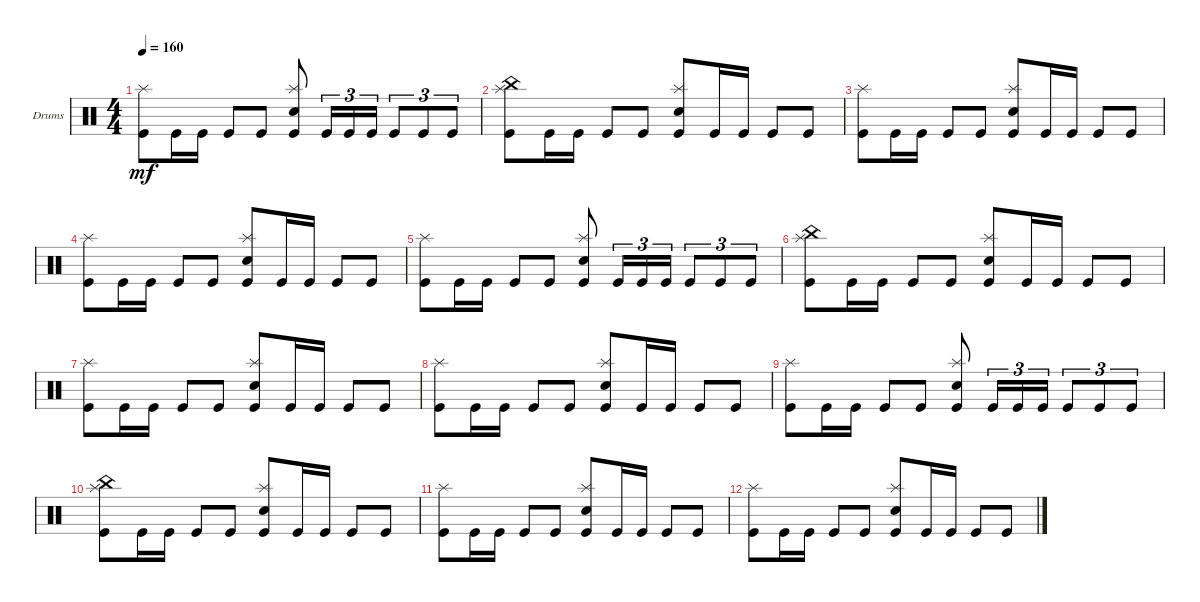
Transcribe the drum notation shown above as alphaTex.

\defaultSystemsLayout 4
\bracketExtendMode groupsimilarinstruments
\firstSystemTrackNameOrientation horizontal
\otherSystemsTrackNameOrientation horizontal
\track ("Drumkit" "Drums") {instrument percussion}
\staff {score}
\articulation defaults
\ts (4 4)
\tempo 160
\clef neutral
\ks c
("Kick (hit)" "Splash (hit)").8{dy mf} "Kick (hit)".16 "Kick (hit)".16 "Kick (hit)".8 "Kick (hit)".8 ("Kick (hit)" "Snare (hit) 2" "Splash (hit)").8 "Kick (hit)".16{tu (3 2)} "Kick (hit)".16{tu (3 2)} "Kick (hit)".16{tu (3 2)} "Kick (hit)".8{tu (3 2)} "Kick (hit)".8{tu (3 2)} "Kick (hit)".8{tu (3 2)} |
("Kick (hit)" "China (hit)" "Splash (hit)").8 "Kick (hit)".16 "Kick (hit)".16 "Kick (hit)".8 "Kick (hit)".8 ("Kick (hit)" "Snare (hit) 2" "Splash (hit)").8 "Kick (hit)".16 "Kick (hit)".16 "Kick (hit)".8 "Kick (hit)".8 |
("Kick (hit)" "Splash (hit)").8 "Kick (hit)".16 "Kick (hit)".16 "Kick (hit)".8 "Kick (hit)".8 ("Kick (hit)" "Snare (hit) 2" "Splash (hit)").8 "Kick (hit)".16 "Kick (hit)".16 "Kick (hit)".8 "Kick (hit)".8 |
("Kick (hit)" "Splash (hit)").8 "Kick (hit)".16 "Kick (hit)".16 "Kick (hit)".8 "Kick (hit)".8 ("Kick (hit)" "Snare (hit) 2" "Splash (hit)").8 "Kick (hit)".16 "Kick (hit)".16 "Kick (hit)".8 "Kick (hit)".8 |
("Kick (hit)" "Splash (hit)").8 "Kick (hit)".16 "Kick (hit)".16 "Kick (hit)".8 "Kick (hit)".8 ("Kick (hit)" "Snare (hit) 2" "Splash (hit)").8 "Kick (hit)".16{tu (3 2)} "Kick (hit)".16{tu (3 2)} "Kick (hit)".16{tu (3 2)} "Kick (hit)".8{tu (3 2)} "Kick (hit)".8{tu (3 2)} "Kick (hit)".8{tu (3 2)} |
("Kick (hit)" "China (hit)" "Splash (hit)").8 "Kick (hit)".16 "Kick (hit)".16 "Kick (hit)".8 "Kick (hit)".8 ("Kick (hit)" "Snare (hit) 2" "Splash (hit)").8 "Kick (hit)".16 "Kick (hit)".16 "Kick (hit)".8 "Kick (hit)".8 |
("Kick (hit)" "Splash (hit)").8 "Kick (hit)".16 "Kick (hit)".16 "Kick (hit)".8 "Kick (hit)".8 ("Kick (hit)" "Snare (hit) 2" "Splash (hit)").8 "Kick (hit)".16 "Kick (hit)".16 "Kick (hit)".8 "Kick (hit)".8 |
("Kick (hit)" "Splash (hit)").8 "Kick (hit)".16 "Kick (hit)".16 "Kick (hit)".8 "Kick (hit)".8 ("Kick (hit)" "Snare (hit) 2" "Splash (hit)").8 "Kick (hit)".16 "Kick (hit)".16 "Kick (hit)".8 "Kick (hit)".8 |
("Kick (hit)" "Splash (hit)").8 "Kick (hit)".16 "Kick (hit)".16 "Kick (hit)".8 "Kick (hit)".8 ("Kick (hit)" "Snare (hit) 2" "Splash (hit)").8 "Kick (hit)".16{tu (3 2)} "Kick (hit)".16{tu (3 2)} "Kick (hit)".16{tu (3 2)} "Kick (hit)".8{tu (3 2)} "Kick (hit)".8{tu (3 2)} "Kick (hit)".8{tu (3 2)} |
("Kick (hit)" "China (hit)" "Splash (hit)").8 "Kick (hit)".16 "Kick (hit)".16 "Kick (hit)".8 "Kick (hit)".8 ("Kick (hit)" "Snare (hit) 2" "Splash (hit)").8 "Kick (hit)".16 "Kick (hit)".16 "Kick (hit)".8 "Kick (hit)".8 |
("Kick (hit)" "Splash (hit)").8 "Kick (hit)".16 "Kick (hit)".16 "Kick (hit)".8 "Kick (hit)".8 ("Kick (hit)" "Snare (hit) 2" "Splash (hit)").8 "Kick (hit)".16 "Kick (hit)".16 "Kick (hit)".8 "Kick (hit)".8 |
("Kick (hit)" "Splash (hit)").8 "Kick (hit)".16 "Kick (hit)".16 "Kick (hit)".8 "Kick (hit)".8 ("Kick (hit)" "Snare (hit) 2" "Splash (hit)").8 "Kick (hit)".16 "Kick (hit)".16 "Kick (hit)".8 "Kick (hit)".8
